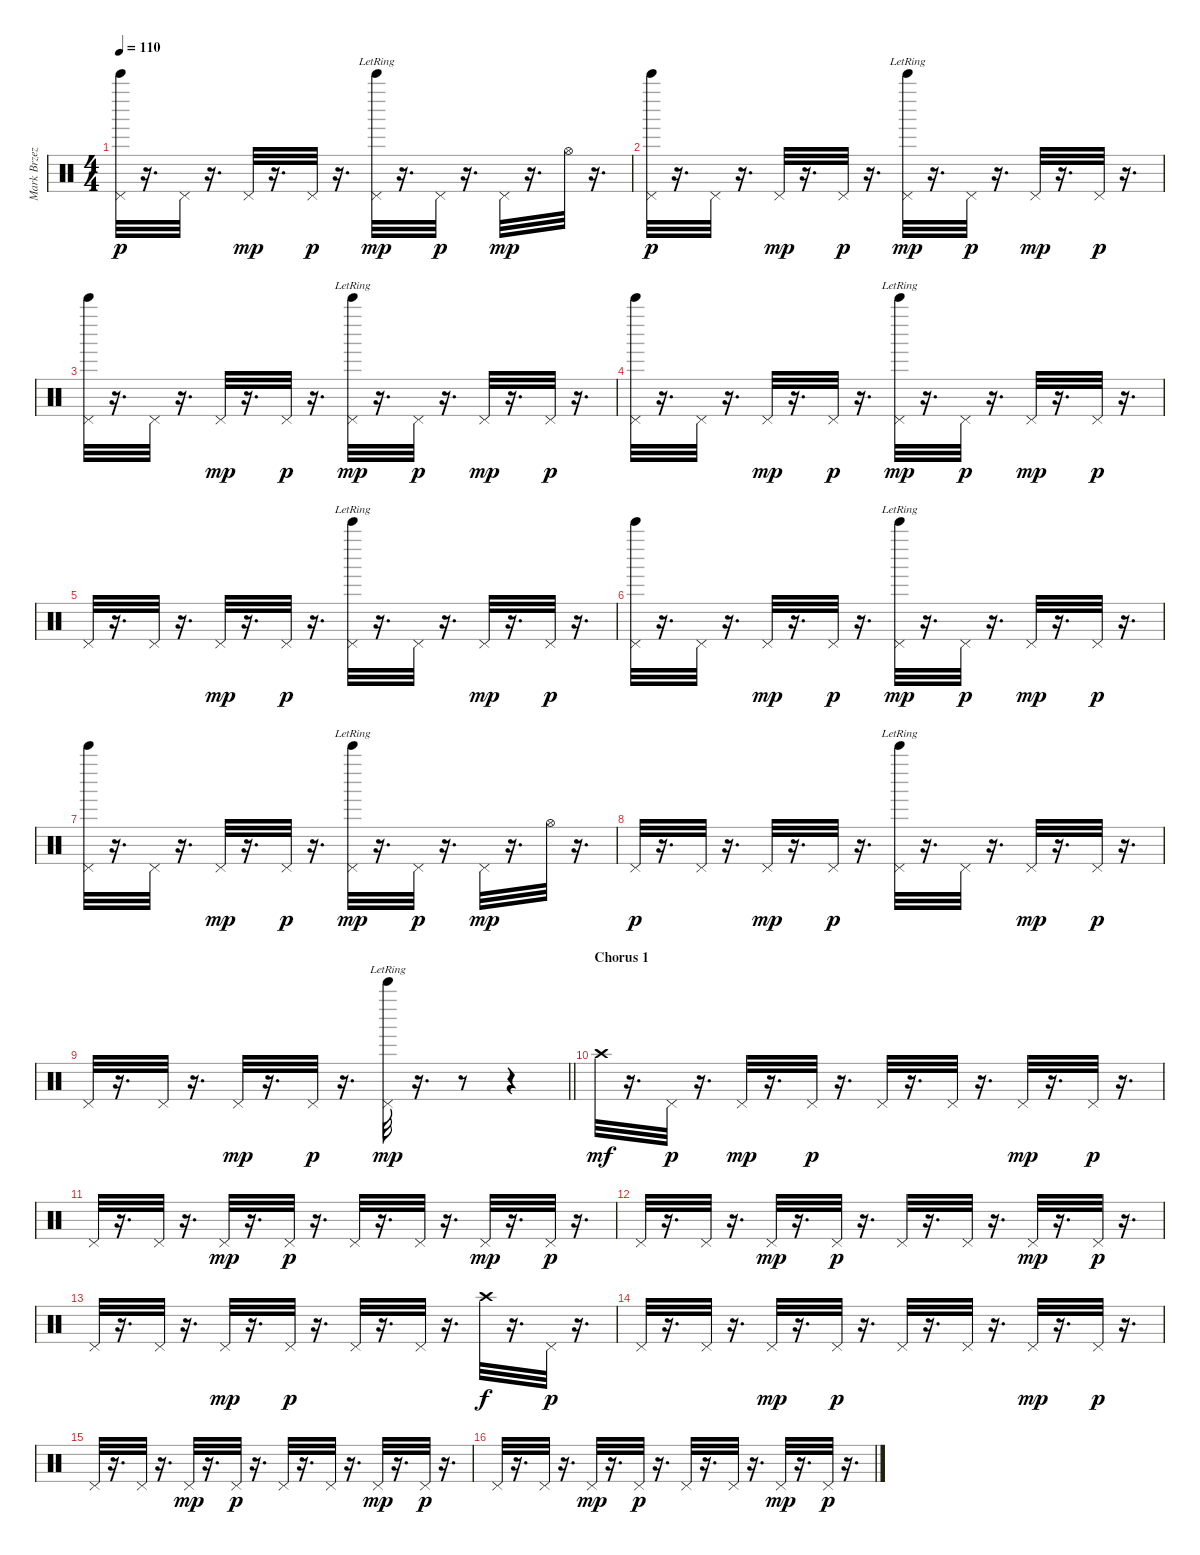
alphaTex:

\track ("Mark Brzezicki - Cymbal (Crash, Open & C" "Mark Brzez") {instrument percussion}
\staff {score}
\articulation defaults
\ts (4 4)
\tempo 110
\clef neutral
\ks c
("Pedal Hi-Hat (hit)" "Bell Tree (hit)").32{dy p} r.16{d} "Pedal Hi-Hat (hit)".32 r.16{d} "Pedal Hi-Hat (hit)".32{dy mp} r.16{d} "Pedal Hi-Hat (hit)".32{dy p} r.16{d} ("Pedal Hi-Hat (hit)" "Bell Tree (hit)"{lr}).32{dy mp} r.16{d} "Pedal Hi-Hat (hit)".32{dy p} r.16{d} "Pedal Hi-Hat (hit)".32{dy mp} r.16{d} "Hi-Hat (open)".32 r.16{d} |
("Pedal Hi-Hat (hit)" "Bell Tree (hit)").32{dy p} r.16{d} "Pedal Hi-Hat (hit)".32 r.16{d} "Pedal Hi-Hat (hit)".32{dy mp} r.16{d} "Pedal Hi-Hat (hit)".32{dy p} r.16{d} ("Pedal Hi-Hat (hit)" "Bell Tree (hit)"{lr}).32{dy mp} r.16{d} "Pedal Hi-Hat (hit)".32{dy p} r.16{d} "Pedal Hi-Hat (hit)".32{dy mp} r.16{d} "Pedal Hi-Hat (hit)".32{dy p} r.16{d} |
("Pedal Hi-Hat (hit)" "Bell Tree (hit)").32 r.16{d} "Pedal Hi-Hat (hit)".32 r.16{d} "Pedal Hi-Hat (hit)".32{dy mp} r.16{d} "Pedal Hi-Hat (hit)".32{dy p} r.16{d} ("Pedal Hi-Hat (hit)" "Bell Tree (hit)"{lr}).32{dy mp} r.16{d} "Pedal Hi-Hat (hit)".32{dy p} r.16{d} "Pedal Hi-Hat (hit)".32{dy mp} r.16{d} "Pedal Hi-Hat (hit)".32{dy p} r.16{d} |
("Pedal Hi-Hat (hit)" "Bell Tree (hit)").32 r.16{d} "Pedal Hi-Hat (hit)".32 r.16{d} "Pedal Hi-Hat (hit)".32{dy mp} r.16{d} "Pedal Hi-Hat (hit)".32{dy p} r.16{d} ("Pedal Hi-Hat (hit)" "Bell Tree (hit)"{lr}).32{dy mp} r.16{d} "Pedal Hi-Hat (hit)".32{dy p} r.16{d} "Pedal Hi-Hat (hit)".32{dy mp} r.16{d} "Pedal Hi-Hat (hit)".32{dy p} r.16{d} |
"Pedal Hi-Hat (hit)".32 r.16{d} "Pedal Hi-Hat (hit)".32 r.16{d} "Pedal Hi-Hat (hit)".32{dy mp} r.16{d} "Pedal Hi-Hat (hit)".32{dy p} r.16{d} ("Pedal Hi-Hat (hit)" "Bell Tree (hit)"{lr}).32 r.16{d} "Pedal Hi-Hat (hit)".32 r.16{d} "Pedal Hi-Hat (hit)".32{dy mp} r.16{d} "Pedal Hi-Hat (hit)".32{dy p} r.16{d} |
("Pedal Hi-Hat (hit)" "Bell Tree (hit)").32 r.16{d} "Pedal Hi-Hat (hit)".32 r.16{d} "Pedal Hi-Hat (hit)".32{dy mp} r.16{d} "Pedal Hi-Hat (hit)".32{dy p} r.16{d} ("Pedal Hi-Hat (hit)" "Bell Tree (hit)"{lr}).32{dy mp} r.16{d} "Pedal Hi-Hat (hit)".32{dy p} r.16{d} "Pedal Hi-Hat (hit)".32{dy mp} r.16{d} "Pedal Hi-Hat (hit)".32{dy p} r.16{d} |
("Pedal Hi-Hat (hit)" "Bell Tree (hit)").32 r.16{d} "Pedal Hi-Hat (hit)".32 r.16{d} "Pedal Hi-Hat (hit)".32{dy mp} r.16{d} "Pedal Hi-Hat (hit)".32{dy p} r.16{d} ("Pedal Hi-Hat (hit)" "Bell Tree (hit)"{lr}).32{dy mp} r.16{d} "Pedal Hi-Hat (hit)".32{dy p} r.16{d} "Pedal Hi-Hat (hit)".32{dy mp} r.16{d} "Hi-Hat (open)".32 r.16{d} |
"Pedal Hi-Hat (hit)".32{dy p} r.16{d} "Pedal Hi-Hat (hit)".32 r.16{d} "Pedal Hi-Hat (hit)".32{dy mp} r.16{d} "Pedal Hi-Hat (hit)".32{dy p} r.16{d} ("Pedal Hi-Hat (hit)" "Bell Tree (hit)"{lr}).32 r.16{d} "Pedal Hi-Hat (hit)".32 r.16{d} "Pedal Hi-Hat (hit)".32{dy mp} r.16{d} "Pedal Hi-Hat (hit)".32{dy p} r.16{d} |
\barLineRight lightlight "Pedal Hi-Hat (hit)".32
r.16{d} "Pedal Hi-Hat (hit)".32 r.16{d} "Pedal Hi-Hat (hit)".32{dy mp} r.16{d} "Pedal Hi-Hat (hit)".32{dy p} r.16{d} ("Pedal Hi-Hat (hit)" "Bell Tree (hit)"{lr}).32{dy mp} r.16{d} r.8 r.4 |
\section ("" "Chorus 1")
"Crash high (hit)".32{dy mf} r.16{d} "Pedal Hi-Hat (hit)".32{dy p} r.16{d} "Pedal Hi-Hat (hit)".32{dy mp} r.16{d} "Pedal Hi-Hat (hit)".32{dy p} r.16{d} "Pedal Hi-Hat (hit)".32 r.16{d} "Pedal Hi-Hat (hit)".32 r.16{d} "Pedal Hi-Hat (hit)".32{dy mp} r.16{d} "Pedal Hi-Hat (hit)".32{dy p} r.16{d} |
"Pedal Hi-Hat (hit)".32 r.16{d} "Pedal Hi-Hat (hit)".32 r.16{d} "Pedal Hi-Hat (hit)".32{dy mp} r.16{d} "Pedal Hi-Hat (hit)".32{dy p} r.16{d} "Pedal Hi-Hat (hit)".32 r.16{d} "Pedal Hi-Hat (hit)".32 r.16{d} "Pedal Hi-Hat (hit)".32{dy mp} r.16{d} "Pedal Hi-Hat (hit)".32{dy p} r.16{d} |
"Pedal Hi-Hat (hit)".32 r.16{d} "Pedal Hi-Hat (hit)".32 r.16{d} "Pedal Hi-Hat (hit)".32{dy mp} r.16{d} "Pedal Hi-Hat (hit)".32{dy p} r.16{d} "Pedal Hi-Hat (hit)".32 r.16{d} "Pedal Hi-Hat (hit)".32 r.16{d} "Pedal Hi-Hat (hit)".32{dy mp} r.16{d} "Pedal Hi-Hat (hit)".32{dy p} r.16{d} |
"Pedal Hi-Hat (hit)".32 r.16{d} "Pedal Hi-Hat (hit)".32 r.16{d} "Pedal Hi-Hat (hit)".32{dy mp} r.16{d} "Pedal Hi-Hat (hit)".32{dy p} r.16{d} "Pedal Hi-Hat (hit)".32 r.16{d} "Pedal Hi-Hat (hit)".32 r.16{d} "Crash high (hit)".32{dy f} r.16{d} "Pedal Hi-Hat (hit)".32{dy p} r.16{d} |
"Pedal Hi-Hat (hit)".32 r.16{d} "Pedal Hi-Hat (hit)".32 r.16{d} "Pedal Hi-Hat (hit)".32{dy mp} r.16{d} "Pedal Hi-Hat (hit)".32{dy p} r.16{d} "Pedal Hi-Hat (hit)".32 r.16{d} "Pedal Hi-Hat (hit)".32 r.16{d} "Pedal Hi-Hat (hit)".32{dy mp} r.16{d} "Pedal Hi-Hat (hit)".32{dy p} r.16{d} |
"Pedal Hi-Hat (hit)".32 r.16{d} "Pedal Hi-Hat (hit)".32 r.16{d} "Pedal Hi-Hat (hit)".32{dy mp} r.16{d} "Pedal Hi-Hat (hit)".32{dy p} r.16{d} "Pedal Hi-Hat (hit)".32 r.16{d} "Pedal Hi-Hat (hit)".32 r.16{d} "Pedal Hi-Hat (hit)".32{dy mp} r.16{d} "Pedal Hi-Hat (hit)".32{dy p} r.16{d} |
"Pedal Hi-Hat (hit)".32 r.16{d} "Pedal Hi-Hat (hit)".32 r.16{d} "Pedal Hi-Hat (hit)".32{dy mp} r.16{d} "Pedal Hi-Hat (hit)".32{dy p} r.16{d} "Pedal Hi-Hat (hit)".32 r.16{d} "Pedal Hi-Hat (hit)".32 r.16{d} "Pedal Hi-Hat (hit)".32{dy mp} r.16{d} "Pedal Hi-Hat (hit)".32{dy p} r.16{d}
